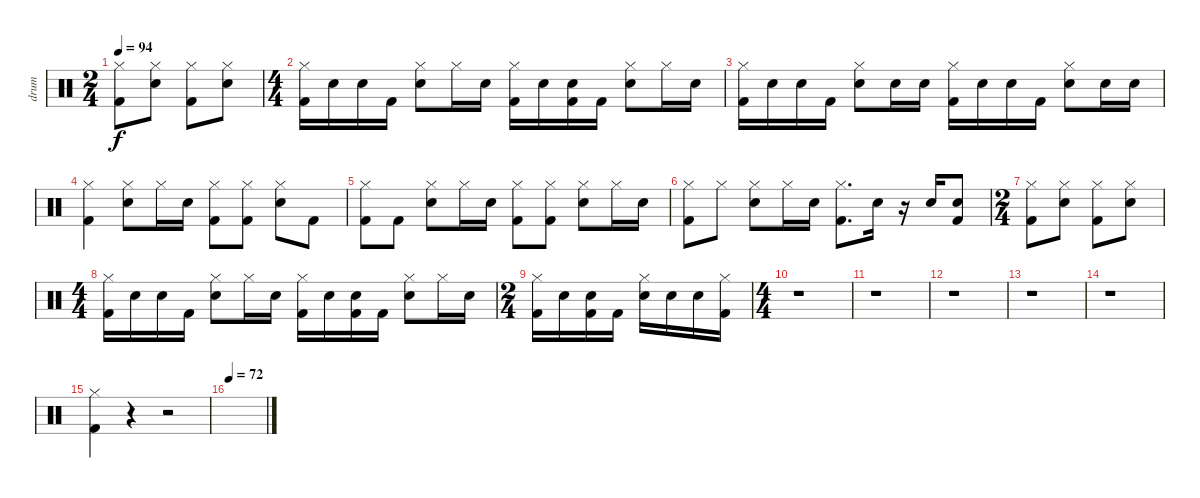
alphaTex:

\track ("drum" "drum") {instrument percussion}
\staff {score}
\articulation defaults
\ts (2 4)
\tempo 94
\clef neutral
\ks c
("Hi-Hat (closed)" "Kick (hit) 2").8{dy f} ("Hi-Hat (closed)" "Electric Snare (hit)").8 ("Hi-Hat (closed)" "Kick (hit) 2").8 ("Hi-Hat (closed)" "Electric Snare (hit)").8 |
\ts (4 4)
("Hi-Hat (closed)" "Kick (hit) 2").16 "Electric Snare (hit)".16 "Electric Snare (hit)".16 "Kick (hit) 2".16 ("Hi-Hat (closed)" "Electric Snare (hit)").8 "Hi-Hat (closed)".16 "Electric Snare (hit)".16 ("Hi-Hat (closed)" "Kick (hit) 2").16 "Electric Snare (hit)".16 ("Electric Snare (hit)" "Kick (hit) 2").16 "Kick (hit) 2".16 ("Hi-Hat (closed)" "Electric Snare (hit)").8 "Hi-Hat (closed)".16 "Electric Snare (hit)".16 |
("Hi-Hat (closed)" "Kick (hit) 2").16 "Electric Snare (hit)".16 "Electric Snare (hit)".16 "Kick (hit) 2".16 ("Hi-Hat (closed)" "Electric Snare (hit)").8 "Electric Snare (hit)".16 "Electric Snare (hit)".16 ("Hi-Hat (closed)" "Kick (hit) 2").16 "Electric Snare (hit)".16 "Electric Snare (hit)".16 "Kick (hit) 2".16 ("Hi-Hat (closed)" "Electric Snare (hit)").8 "Electric Snare (hit)".16 "Electric Snare (hit)".16 |
("Hi-Hat (closed)" "Kick (hit) 2").4 ("Hi-Hat (closed)" "Electric Snare (hit)").8 "Hi-Hat (closed)".16 "Electric Snare (hit)".16 ("Hi-Hat (closed)" "Kick (hit) 2").8 ("Hi-Hat (closed)" "Kick (hit) 2").8 ("Electric Snare (hit)" "Hi-Hat (closed)").8 "Kick (hit) 2".8 |
("Hi-Hat (closed)" "Kick (hit) 2").8 "Kick (hit) 2".8 ("Hi-Hat (closed)" "Electric Snare (hit)").8 "Hi-Hat (closed)".16 "Electric Snare (hit)".16 ("Hi-Hat (closed)" "Kick (hit) 2").8 ("Hi-Hat (closed)" "Kick (hit) 2").8 ("Electric Snare (hit)" "Hi-Hat (closed)").8 "Hi-Hat (closed)".16 "Electric Snare (hit)".16 |
("Hi-Hat (closed)" "Kick (hit) 2").8 "Hi-Hat (closed)".8 ("Hi-Hat (closed)" "Electric Snare (hit)").8 "Hi-Hat (closed)".16 "Electric Snare (hit)".16 ("Hi-Hat (closed)" "Kick (hit) 2").8{d} "Electric Snare (hit)".16 r.16 "Electric Snare (hit)".16 ("Electric Snare (hit)" "Kick (hit) 2").8 |
\ts (2 4)
("Hi-Hat (closed)" "Kick (hit) 2").8 ("Hi-Hat (closed)" "Electric Snare (hit)").8 ("Hi-Hat (closed)" "Kick (hit) 2").8 ("Hi-Hat (closed)" "Electric Snare (hit)").8 |
\ts (4 4)
("Hi-Hat (closed)" "Kick (hit) 2").16 "Electric Snare (hit)".16 "Electric Snare (hit)".16 "Kick (hit) 2".16 ("Hi-Hat (closed)" "Electric Snare (hit)").8 "Hi-Hat (closed)".16 "Electric Snare (hit)".16 ("Hi-Hat (closed)" "Kick (hit) 2").16 "Electric Snare (hit)".16 ("Electric Snare (hit)" "Kick (hit) 2").16 "Kick (hit) 2".16 ("Hi-Hat (closed)" "Electric Snare (hit)").8 "Hi-Hat (closed)".16 "Electric Snare (hit)".16 |
\ts (2 4)
("Hi-Hat (closed)" "Kick (hit) 2").16 "Electric Snare (hit)".16 ("Electric Snare (hit)" "Kick (hit) 2").16 "Kick (hit) 2".16 ("Hi-Hat (closed)" "Electric Snare (hit)").16 "Electric Snare (hit)".16 "Electric Snare (hit)".16 ("Hi-Hat (closed)" "Kick (hit) 2").16 |
\ts (4 4)
r.1 |
r.1 |
r.1 |
r.1 |
r.1 |
("Hi-Hat (closed)" "Kick (hit) 2").4 r.4 r.2 |
\tempo 72
